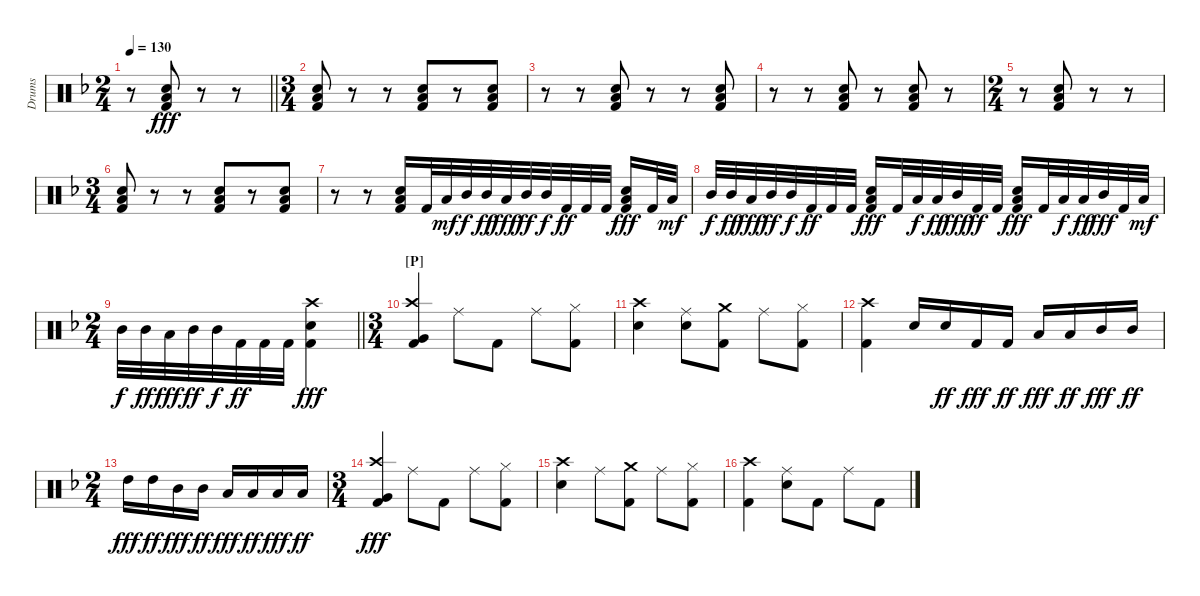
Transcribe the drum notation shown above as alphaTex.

\track ("Drums" "Drums") {instrument percussion}
\staff {score}
\articulation defaults
\ts (2 4)
\tempo 130
\clef neutral
\barLineRight lightlight
\ks dminor
r.8{dy fff} ("Snare (hit) 2" "Low Tom (hit)" "Kick (hit) 2").8{beam merge} r.8 r.8 |
\ts (3 4)
\section ("" "")
("Snare (hit) 2" "Low Tom (hit)" "Kick (hit) 2").8 r.8{beam merge} r.8 ("Snare (hit) 2" "Low Tom (hit)" "Kick (hit) 2").8{beam merge} r.8 ("Snare (hit) 2" "Low Tom (hit)" "Kick (hit) 2").8 |
r.8 r.8 ("Snare (hit) 2" "Low Tom (hit)" "Kick (hit) 2").8 r.8{beam merge} r.8 ("Snare (hit) 2" "Low Tom (hit)" "Kick (hit) 2").8 |
r.8{beam merge} r.8 ("Snare (hit) 2" "Low Tom (hit)" "Kick (hit) 2").8 r.8 ("Snare (hit) 2" "Low Tom (hit)" "Kick (hit) 2").8 r.8 |
\ts (2 4)
r.8 ("Snare (hit) 2" "Low Tom (hit)" "Kick (hit) 2").8{beam merge} r.8 r.8 |
\ts (3 4)
("Snare (hit) 2" "Low Tom (hit)" "Kick (hit) 2").8 r.8{beam merge} r.8 ("Snare (hit) 2" "Low Tom (hit)" "Kick (hit) 2").8{beam merge} r.8 ("Snare (hit) 2" "Low Tom (hit)" "Kick (hit) 2").8 |
r.8{beam merge} r.8 ("Snare (hit) 2" "Low Tom (hit)" "Kick (hit) 2").16 "Kick (hit) 2".32 "Low Tom (hit)".32{dy mf} "Mid Tom (hit)".32{dy f} "Mid Tom (hit)".32{dy ff} "Low Tom (hit)".32{dy fff} "Mid Tom (hit)".32{dy ff beam merge} "Mid Tom (hit)".32{dy f} "Kick (hit) 2".32{dy ff} "Kick (hit) 2".32 "Kick (hit) 2".32{beam split} ("Snare (hit) 2" "Low Tom (hit)" "Kick (hit) 2").16{dy fff} "Kick (hit) 2".32 "Low Tom (hit)".32{dy mf} |
"Mid Tom (hit)".32{dy f} "Mid Tom (hit)".32{dy ff} "Low Tom (hit)".32{dy fff} "Mid Tom (hit)".32{dy ff} "Mid Tom (hit)".32{dy f} "Kick (hit) 2".32{dy ff} "Kick (hit) 2".32 "Kick (hit) 2".32 ("Snare (hit) 2" "Low Tom (hit)" "Kick (hit) 2").16{dy fff} "Kick (hit) 2".32 "Low Tom (hit)".32{dy f} "Low Tom (hit)".32{dy ff} "Mid Tom (hit)".32{dy fff} "Kick (hit) 2".32{dy ff} "Kick (hit) 2".32 ("Snare (hit) 2" "Low Tom (hit)" "Kick (hit) 2").16{dy fff} "Kick (hit) 2".32 "Low Tom (hit)".32{dy f} "Low Tom (hit)".32{dy ff} "Mid Tom (hit)".32{dy fff} "Kick (hit) 2".32 "Low Tom (hit)".32{dy mf} |
\ts (2 4)
\barLineRight lightlight "Mid Tom (hit)".32{dy f} "Mid Tom (hit)".32{dy ff} "Low Tom (hit)".32{dy fff} "Mid Tom (hit)".32{dy ff} "Mid Tom (hit)".32{dy f} "Kick (hit) 2".32{dy ff} "Kick (hit) 2".32 "Kick (hit) 2".32{beam merge}
("Crash high (hit)" "Snare (hit) 2" "Kick (hit) 2").4{dy fff} |
\ts (3 4)
\section ("" "[P]")
("Crash high (hit)" "Very Low Tom (hit)" "Kick (hit) 2").4 "Ride (middle)".8 "Kick (hit) 2".8 "Ride (middle)".8 ("Hi-Hat (closed)" "Kick (hit) 2").8 |
("Crash high (hit)" "Snare (hit) 2").4 ("Ride (middle)" "Snare (hit) 2").8 ("Crash medium (hit)" "Kick (hit) 2").8 "Ride (middle)".8 ("Hi-Hat (closed)" "Kick (hit) 2").8 |
("Crash high (hit)" "Kick (hit) 2").4 "Snare (hit) 2".16 "Snare (hit) 2".16{dy ff} "Kick (hit) 2".16{dy fff} "Kick (hit) 2".16{dy ff} "Low Tom (hit)".16{dy fff} "Low Tom (hit)".16{dy ff} "Mid Tom (hit)".16{dy fff} "Mid Tom (hit)".16{dy ff} |
\ts (2 4)
"High Tom (hit)".16{dy fff} "High Tom (hit)".16{dy ff} "Mid Tom (hit)".16{dy fff} "Mid Tom (hit)".16{dy ff} "Low Tom (hit)".16{dy fff} "Low Tom (hit)".16{dy ff} "Low Floor Tom (hit)".16{dy fff} "Low Floor Tom (hit)".16{dy ff} |
\ts (3 4)
("Crash high (hit)" "Very Low Tom (hit)" "Kick (hit) 2").4{dy fff} "Ride (middle)".8 "Kick (hit) 2".8 "Ride (middle)".8 ("Hi-Hat (closed)" "Kick (hit) 2").8 |
("Crash high (hit)" "Snare (hit) 2").4 "Ride (middle)".8 ("Crash medium (hit)" "Kick (hit) 2").8 "Ride (middle)".8 ("Hi-Hat (closed)" "Kick (hit) 2").8 |
("Crash high (hit)" "Kick (hit) 2").4 ("Ride (middle)" "Snare (hit) 2").8 "Kick (hit) 2".8 "Ride (middle)".8 "Kick (hit) 2".8
